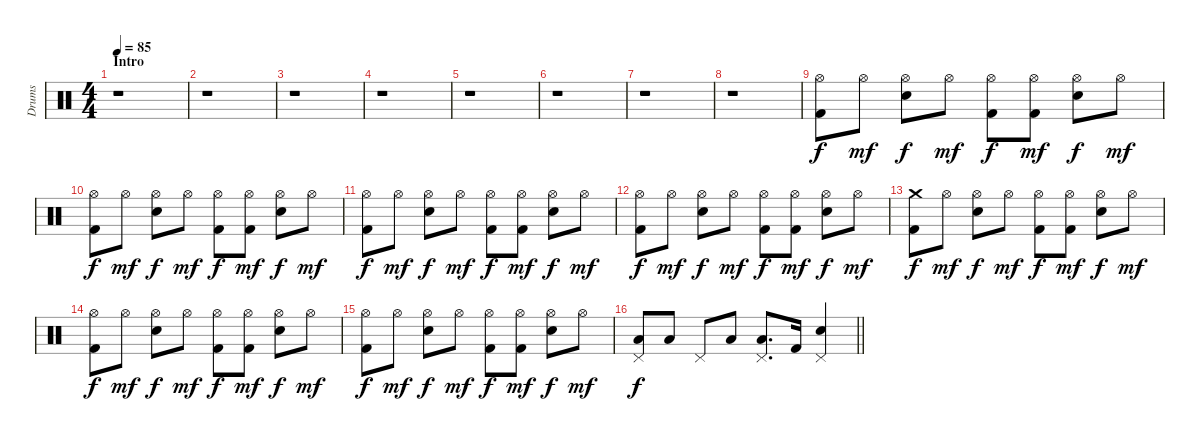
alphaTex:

\track ("Drums" "Drums") {instrument percussion}
\staff {score}
\articulation defaults
\ts (4 4)
\section ("" "Intro")
\tempo 85
\clef neutral
\ks c
r.1{dy f} |
r.1 |
r.1 |
r.1 |
r.1 |
r.1 |
r.1 |
r.1 |
("Hi-Hat (open)" "Kick (hit) 2").8 "Hi-Hat (open)".8{dy mf} ("Hi-Hat (open)" "Snare (hit) 2").8{dy f} "Hi-Hat (open)".8{dy mf} ("Hi-Hat (open)" "Kick (hit) 2").8{dy f} ("Hi-Hat (open)" "Kick (hit) 2").8{dy mf} ("Hi-Hat (open)" "Snare (hit) 2").8{dy f} "Hi-Hat (open)".8{dy mf} |
("Hi-Hat (open)" "Kick (hit) 2").8{dy f} "Hi-Hat (open)".8{dy mf} ("Hi-Hat (open)" "Snare (hit) 2").8{dy f} "Hi-Hat (open)".8{dy mf} ("Hi-Hat (open)" "Kick (hit) 2").8{dy f} ("Hi-Hat (open)" "Kick (hit) 2").8{dy mf} ("Hi-Hat (open)" "Snare (hit) 2").8{dy f} "Hi-Hat (open)".8{dy mf} |
("Hi-Hat (open)" "Kick (hit) 2").8{dy f} "Hi-Hat (open)".8{dy mf} ("Hi-Hat (open)" "Snare (hit) 2").8{dy f} "Hi-Hat (open)".8{dy mf} ("Hi-Hat (open)" "Kick (hit) 2").8{dy f} ("Hi-Hat (open)" "Kick (hit) 2").8{dy mf} ("Hi-Hat (open)" "Snare (hit) 2").8{dy f} "Hi-Hat (open)".8{dy mf} |
("Hi-Hat (open)" "Kick (hit) 2").8{dy f} "Hi-Hat (open)".8{dy mf} ("Hi-Hat (open)" "Snare (hit) 2").8{dy f} "Hi-Hat (open)".8{dy mf} ("Hi-Hat (open)" "Kick (hit) 2").8{dy f} ("Hi-Hat (open)" "Kick (hit) 2").8{dy mf} ("Hi-Hat (open)" "Snare (hit) 2").8{dy f} "Hi-Hat (open)".8{dy mf} |
("Crash medium (hit)" "Kick (hit) 2").8{dy f} "Hi-Hat (open)".8{dy mf} ("Hi-Hat (open)" "Snare (hit) 2").8{dy f} "Hi-Hat (open)".8{dy mf} ("Hi-Hat (open)" "Kick (hit) 2").8{dy f} ("Hi-Hat (open)" "Kick (hit) 2").8{dy mf} ("Hi-Hat (open)" "Snare (hit) 2").8{dy f} "Hi-Hat (open)".8{dy mf} |
("Hi-Hat (open)" "Kick (hit) 2").8{dy f} "Hi-Hat (open)".8{dy mf} ("Hi-Hat (open)" "Snare (hit) 2").8{dy f} "Hi-Hat (open)".8{dy mf} ("Hi-Hat (open)" "Kick (hit) 2").8{dy f} ("Hi-Hat (open)" "Kick (hit) 2").8{dy mf} ("Hi-Hat (open)" "Snare (hit) 2").8{dy f} "Hi-Hat (open)".8{dy mf} |
("Hi-Hat (open)" "Kick (hit) 2").8{dy f} "Hi-Hat (open)".8{dy mf} ("Hi-Hat (open)" "Snare (hit) 2").8{dy f} "Hi-Hat (open)".8{dy mf} ("Hi-Hat (open)" "Kick (hit) 2").8{dy f} ("Hi-Hat (open)" "Kick (hit) 2").8{dy mf} ("Hi-Hat (open)" "Snare (hit) 2").8{dy f} "Hi-Hat (open)".8{dy mf} |
\barLineRight lightlight
("Pedal Hi-Hat (hit)" "Low Tom (hit)").8{dy f} "Low Tom (hit)".8 "Pedal Hi-Hat (hit)".8 "Low Floor Tom (hit)".8 ("Pedal Hi-Hat (hit)" "Low Floor Tom (hit)").8{d} "Kick (hit) 2".16 ("Pedal Hi-Hat (hit)" "Snare (hit) 2").4
